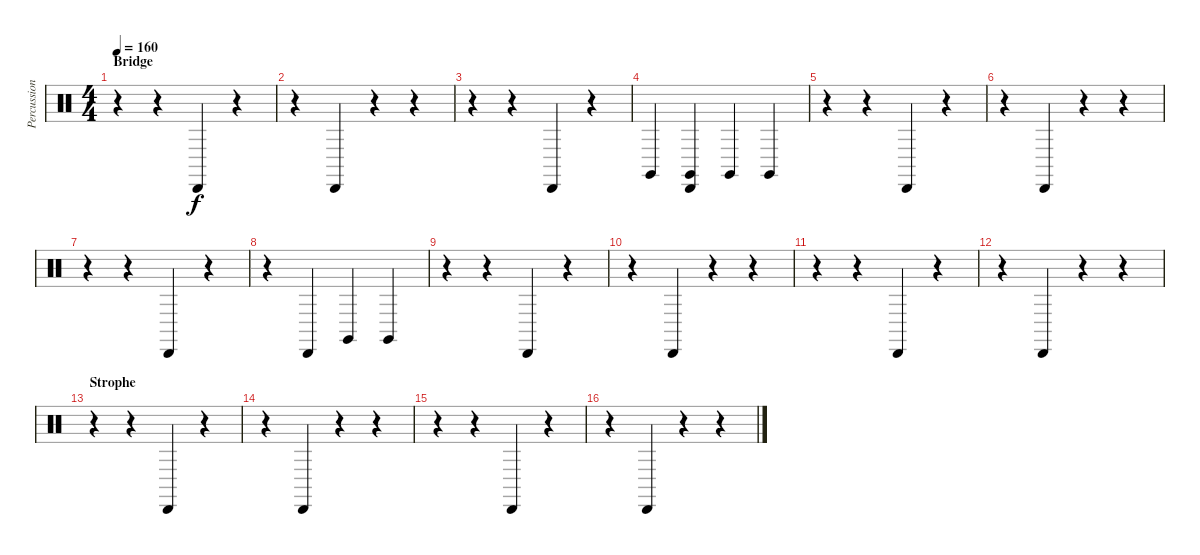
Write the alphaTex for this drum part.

\track ("Percussion" "Percussion") {instrument percussion}
\staff {score}
\articulation defaults
\ts (4 4)
\section ("" "Bridge")
\tempo 160
\clef neutral
\ks c
r.4{dy f} r.4 "Cabasa (hit)".4 r.4 |
r.4 "Cabasa (hit)".4 r.4 r.4 |
r.4 r.4 "Cabasa (hit)".4 r.4 |
"Claves (hit)".4 ("Cabasa (hit)" "Claves (hit)").4 "Claves (hit)".4 "Claves (hit)".4 |
r.4 r.4 "Cabasa (hit)".4 r.4 |
r.4 "Cabasa (hit)".4 r.4 r.4 |
r.4 r.4 "Cabasa (hit)".4 r.4 |
r.4 "Cabasa (hit)".4 "Claves (hit)".4 "Claves (hit)".4 |
r.4 r.4 "Cabasa (hit)".4 r.4 |
r.4 "Cabasa (hit)".4 r.4 r.4 |
r.4 r.4 "Cabasa (hit)".4 r.4 |
r.4 "Cabasa (hit)".4 r.4 r.4 |
\section ("" "Strophe")
r.4 r.4 "Cabasa (hit)".4 r.4 |
r.4 "Cabasa (hit)".4 r.4 r.4 |
r.4 r.4 "Cabasa (hit)".4 r.4 |
r.4 "Cabasa (hit)".4 r.4 r.4
